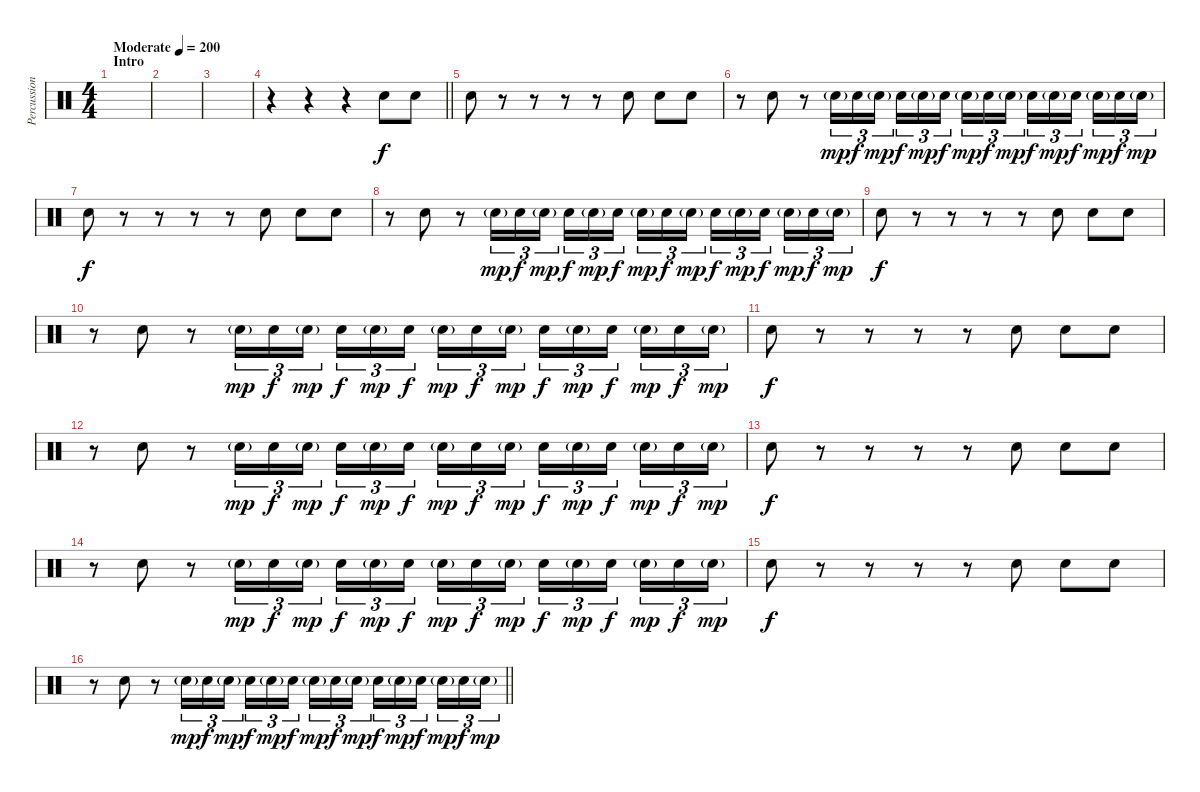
\track ("Percussion" "Percussion") {instrument percussion}
\staff {score}
\articulation defaults
\ts (4 4)
\section ("" "Intro")
\tempo (200 "Moderate")
\clef neutral
\ks c
|
|
|
\barLineRight lightlight
r.4 r.4 r.4 "Snare (hit) 2".8 "Snare (hit) 2".8 |
"Snare (hit) 2".8 r.8 r.8 r.8 r.8 "Snare (hit) 2".8 "Snare (hit) 2".8 "Snare (hit) 2".8 |
r.8 "Snare (hit) 2".8 r.8 "Snare (hit) 2"{g}.16{tu (3 2) dy mp} "Snare (hit) 2".16{tu (3 2) dy f} "Snare (hit) 2"{g}.16{tu (3 2) dy mp} "Snare (hit) 2".16{tu (3 2) dy f} "Snare (hit) 2"{g}.16{tu (3 2) dy mp} "Snare (hit) 2".16{tu (3 2) dy f beam splitsecondary} "Snare (hit) 2"{g}.16{tu (3 2) dy mp} "Snare (hit) 2".16{tu (3 2) dy f} "Snare (hit) 2"{g}.16{tu (3 2) dy mp} "Snare (hit) 2".16{tu (3 2) dy f} "Snare (hit) 2"{g}.16{tu (3 2) dy mp} "Snare (hit) 2".16{tu (3 2) dy f beam splitsecondary} "Snare (hit) 2"{g}.16{tu (3 2) dy mp} "Snare (hit) 2".16{tu (3 2) dy f} "Snare (hit) 2"{g}.16{tu (3 2) dy mp} |
"Snare (hit) 2".8{dy f} r.8 r.8 r.8 r.8 "Snare (hit) 2".8 "Snare (hit) 2".8 "Snare (hit) 2".8 |
r.8 "Snare (hit) 2".8 r.8 "Snare (hit) 2"{g}.16{tu (3 2) dy mp} "Snare (hit) 2".16{tu (3 2) dy f} "Snare (hit) 2"{g}.16{tu (3 2) dy mp} "Snare (hit) 2".16{tu (3 2) dy f} "Snare (hit) 2"{g}.16{tu (3 2) dy mp} "Snare (hit) 2".16{tu (3 2) dy f beam splitsecondary} "Snare (hit) 2"{g}.16{tu (3 2) dy mp} "Snare (hit) 2".16{tu (3 2) dy f} "Snare (hit) 2"{g}.16{tu (3 2) dy mp} "Snare (hit) 2".16{tu (3 2) dy f} "Snare (hit) 2"{g}.16{tu (3 2) dy mp} "Snare (hit) 2".16{tu (3 2) dy f beam splitsecondary} "Snare (hit) 2"{g}.16{tu (3 2) dy mp} "Snare (hit) 2".16{tu (3 2) dy f} "Snare (hit) 2"{g}.16{tu (3 2) dy mp} |
"Snare (hit) 2".8{dy f} r.8 r.8 r.8 r.8 "Snare (hit) 2".8 "Snare (hit) 2".8 "Snare (hit) 2".8 |
r.8 "Snare (hit) 2".8 r.8 "Snare (hit) 2"{g}.16{tu (3 2) dy mp} "Snare (hit) 2".16{tu (3 2) dy f} "Snare (hit) 2"{g}.16{tu (3 2) dy mp} "Snare (hit) 2".16{tu (3 2) dy f} "Snare (hit) 2"{g}.16{tu (3 2) dy mp} "Snare (hit) 2".16{tu (3 2) dy f beam splitsecondary} "Snare (hit) 2"{g}.16{tu (3 2) dy mp} "Snare (hit) 2".16{tu (3 2) dy f} "Snare (hit) 2"{g}.16{tu (3 2) dy mp} "Snare (hit) 2".16{tu (3 2) dy f} "Snare (hit) 2"{g}.16{tu (3 2) dy mp} "Snare (hit) 2".16{tu (3 2) dy f beam splitsecondary} "Snare (hit) 2"{g}.16{tu (3 2) dy mp} "Snare (hit) 2".16{tu (3 2) dy f} "Snare (hit) 2"{g}.16{tu (3 2) dy mp} |
"Snare (hit) 2".8{dy f} r.8 r.8 r.8 r.8 "Snare (hit) 2".8 "Snare (hit) 2".8 "Snare (hit) 2".8 |
r.8 "Snare (hit) 2".8 r.8 "Snare (hit) 2"{g}.16{tu (3 2) dy mp} "Snare (hit) 2".16{tu (3 2) dy f} "Snare (hit) 2"{g}.16{tu (3 2) dy mp} "Snare (hit) 2".16{tu (3 2) dy f} "Snare (hit) 2"{g}.16{tu (3 2) dy mp} "Snare (hit) 2".16{tu (3 2) dy f beam splitsecondary} "Snare (hit) 2"{g}.16{tu (3 2) dy mp} "Snare (hit) 2".16{tu (3 2) dy f} "Snare (hit) 2"{g}.16{tu (3 2) dy mp} "Snare (hit) 2".16{tu (3 2) dy f} "Snare (hit) 2"{g}.16{tu (3 2) dy mp} "Snare (hit) 2".16{tu (3 2) dy f beam splitsecondary} "Snare (hit) 2"{g}.16{tu (3 2) dy mp} "Snare (hit) 2".16{tu (3 2) dy f} "Snare (hit) 2"{g}.16{tu (3 2) dy mp} |
"Snare (hit) 2".8{dy f} r.8 r.8 r.8 r.8 "Snare (hit) 2".8 "Snare (hit) 2".8 "Snare (hit) 2".8 |
r.8 "Snare (hit) 2".8 r.8 "Snare (hit) 2"{g}.16{tu (3 2) dy mp} "Snare (hit) 2".16{tu (3 2) dy f} "Snare (hit) 2"{g}.16{tu (3 2) dy mp} "Snare (hit) 2".16{tu (3 2) dy f} "Snare (hit) 2"{g}.16{tu (3 2) dy mp} "Snare (hit) 2".16{tu (3 2) dy f beam splitsecondary} "Snare (hit) 2"{g}.16{tu (3 2) dy mp} "Snare (hit) 2".16{tu (3 2) dy f} "Snare (hit) 2"{g}.16{tu (3 2) dy mp} "Snare (hit) 2".16{tu (3 2) dy f} "Snare (hit) 2"{g}.16{tu (3 2) dy mp} "Snare (hit) 2".16{tu (3 2) dy f beam splitsecondary} "Snare (hit) 2"{g}.16{tu (3 2) dy mp} "Snare (hit) 2".16{tu (3 2) dy f} "Snare (hit) 2"{g}.16{tu (3 2) dy mp} |
"Snare (hit) 2".8{dy f} r.8 r.8 r.8 r.8 "Snare (hit) 2".8 "Snare (hit) 2".8 "Snare (hit) 2".8 |
\barLineRight lightlight
r.8 "Snare (hit) 2".8 r.8 "Snare (hit) 2"{g}.16{tu (3 2) dy mp} "Snare (hit) 2".16{tu (3 2) dy f} "Snare (hit) 2"{g}.16{tu (3 2) dy mp} "Snare (hit) 2".16{tu (3 2) dy f} "Snare (hit) 2"{g}.16{tu (3 2) dy mp} "Snare (hit) 2".16{tu (3 2) dy f beam splitsecondary} "Snare (hit) 2"{g}.16{tu (3 2) dy mp} "Snare (hit) 2".16{tu (3 2) dy f} "Snare (hit) 2"{g}.16{tu (3 2) dy mp} "Snare (hit) 2".16{tu (3 2) dy f} "Snare (hit) 2"{g}.16{tu (3 2) dy mp} "Snare (hit) 2".16{tu (3 2) dy f beam splitsecondary} "Snare (hit) 2"{g}.16{tu (3 2) dy mp} "Snare (hit) 2".16{tu (3 2) dy f} "Snare (hit) 2"{g}.16{tu (3 2) dy mp}
